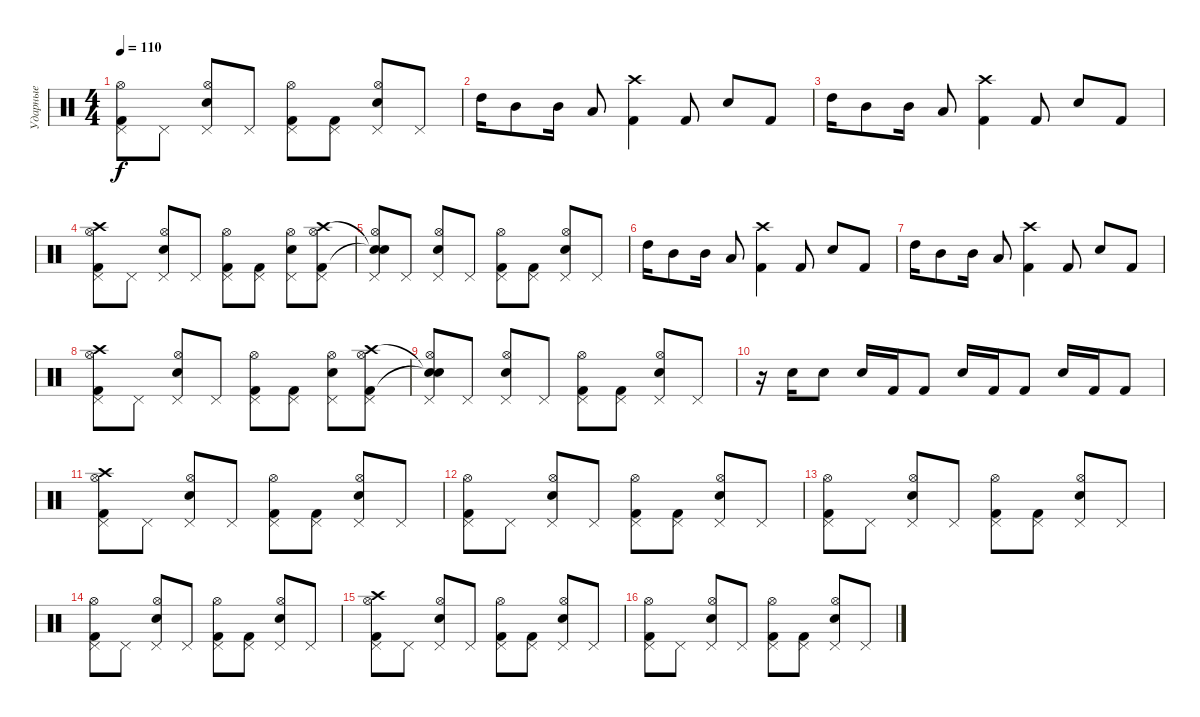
\track ("Ударные" "Ударные") {instrument percussion}
\staff {score}
\articulation defaults
\ts (4 4)
\tempo 110
\clef neutral
\ks c
("Kick (hit) 2" "Pedal Hi-Hat (hit)" "Hi-Hat (open)").8{dy f} "Pedal Hi-Hat (hit)".8 ("Snare (hit) 2" "Pedal Hi-Hat (hit)" "Hi-Hat (open)").8 "Pedal Hi-Hat (hit)".8 ("Kick (hit) 2" "Pedal Hi-Hat (hit)" "Hi-Hat (open)").8 ("Kick (hit) 2" "Pedal Hi-Hat (hit)").8 ("Snare (hit) 2" "Pedal Hi-Hat (hit)" "Hi-Hat (open)").8 "Pedal Hi-Hat (hit)".8 |
"High Tom (hit)".16 "Mid Tom (hit)".8 "Mid Tom (hit)".16 "Low Tom (hit)".8 ("Kick (hit) 2" "Crash high (hit)").4 "Kick (hit) 2".8 "Snare (hit) 2".8 "Kick (hit) 2".8 |
"High Tom (hit)".16 "Mid Tom (hit)".8 "Mid Tom (hit)".16 "Low Tom (hit)".8 ("Kick (hit) 2" "Crash high (hit)").4 "Kick (hit) 2".8 "Snare (hit) 2".8 "Kick (hit) 2".8 |
("Kick (hit) 2" "Crash high (hit)" "Pedal Hi-Hat (hit)" "Hi-Hat (open)").8 "Pedal Hi-Hat (hit)".8 ("Snare (hit) 2" "Pedal Hi-Hat (hit)" "Hi-Hat (open)").8 "Pedal Hi-Hat (hit)".8 ("Kick (hit) 2" "Pedal Hi-Hat (hit)" "Hi-Hat (open)").8 ("Kick (hit) 2" "Pedal Hi-Hat (hit)").8 ("Snare (hit) 2" "Pedal Hi-Hat (hit)" "Hi-Hat (open)").8 ("Kick (hit) 2" "Crash high (hit)" "Pedal Hi-Hat (hit)" "Hi-Hat (open)").8 |
("Snare (hit)"{t} "Snare (hit)"{t} "Pedal Hi-Hat (hit)" "Hi-Hat (open)").8 "Pedal Hi-Hat (hit)".8 ("Snare (hit) 2" "Pedal Hi-Hat (hit)" "Hi-Hat (open)").8 "Pedal Hi-Hat (hit)".8 ("Kick (hit) 2" "Pedal Hi-Hat (hit)" "Hi-Hat (open)").8 ("Kick (hit) 2" "Pedal Hi-Hat (hit)").8 ("Snare (hit) 2" "Pedal Hi-Hat (hit)" "Hi-Hat (open)").8 "Pedal Hi-Hat (hit)".8 |
"High Tom (hit)".16 "Mid Tom (hit)".8 "Mid Tom (hit)".16 "Low Tom (hit)".8 ("Kick (hit) 2" "Crash high (hit)").4 "Kick (hit) 2".8 "Snare (hit) 2".8 "Kick (hit) 2".8 |
"High Tom (hit)".16 "Mid Tom (hit)".8 "Mid Tom (hit)".16 "Low Tom (hit)".8 ("Kick (hit) 2" "Crash high (hit)").4 "Kick (hit) 2".8 "Snare (hit) 2".8 "Kick (hit) 2".8 |
("Kick (hit) 2" "Crash high (hit)" "Pedal Hi-Hat (hit)" "Hi-Hat (open)").8 "Pedal Hi-Hat (hit)".8 ("Snare (hit) 2" "Pedal Hi-Hat (hit)" "Hi-Hat (open)").8 "Pedal Hi-Hat (hit)".8 ("Kick (hit) 2" "Pedal Hi-Hat (hit)" "Hi-Hat (open)").8 ("Kick (hit) 2" "Pedal Hi-Hat (hit)").8 ("Snare (hit) 2" "Pedal Hi-Hat (hit)" "Hi-Hat (open)").8 ("Kick (hit) 2" "Crash high (hit)" "Pedal Hi-Hat (hit)" "Hi-Hat (open)").8 |
("Snare (hit)"{t} "Snare (hit)"{t} "Pedal Hi-Hat (hit)" "Hi-Hat (open)").8 "Pedal Hi-Hat (hit)".8 ("Snare (hit) 2" "Pedal Hi-Hat (hit)" "Hi-Hat (open)").8 "Pedal Hi-Hat (hit)".8 ("Kick (hit) 2" "Pedal Hi-Hat (hit)" "Hi-Hat (open)").8 ("Kick (hit) 2" "Pedal Hi-Hat (hit)").8 ("Snare (hit) 2" "Pedal Hi-Hat (hit)" "Hi-Hat (open)").8 "Pedal Hi-Hat (hit)".8 |
r.16 "Snare (hit) 2".16 "Snare (hit) 2".8 "Snare (hit) 2".16 "Kick (hit) 2".16 "Kick (hit) 2".8 "Snare (hit) 2".16 "Kick (hit) 2".16 "Kick (hit) 2".8 "Snare (hit) 2".16 "Kick (hit) 2".16 "Kick (hit) 2".8 |
("Kick (hit) 2" "Crash high (hit)" "Pedal Hi-Hat (hit)" "Hi-Hat (open)").8 "Pedal Hi-Hat (hit)".8 ("Snare (hit) 2" "Pedal Hi-Hat (hit)" "Hi-Hat (open)").8 "Pedal Hi-Hat (hit)".8 ("Kick (hit) 2" "Pedal Hi-Hat (hit)" "Hi-Hat (open)").8 ("Kick (hit) 2" "Pedal Hi-Hat (hit)").8 ("Snare (hit) 2" "Pedal Hi-Hat (hit)" "Hi-Hat (open)").8 "Pedal Hi-Hat (hit)".8 |
("Kick (hit) 2" "Pedal Hi-Hat (hit)" "Hi-Hat (open)").8 "Pedal Hi-Hat (hit)".8 ("Snare (hit) 2" "Pedal Hi-Hat (hit)" "Hi-Hat (open)").8 "Pedal Hi-Hat (hit)".8 ("Kick (hit) 2" "Pedal Hi-Hat (hit)" "Hi-Hat (open)").8 ("Kick (hit) 2" "Pedal Hi-Hat (hit)").8 ("Snare (hit) 2" "Pedal Hi-Hat (hit)" "Hi-Hat (open)").8 "Pedal Hi-Hat (hit)".8 |
("Kick (hit) 2" "Pedal Hi-Hat (hit)" "Hi-Hat (open)").8 "Pedal Hi-Hat (hit)".8 ("Snare (hit) 2" "Pedal Hi-Hat (hit)" "Hi-Hat (open)").8 "Pedal Hi-Hat (hit)".8 ("Kick (hit) 2" "Pedal Hi-Hat (hit)" "Hi-Hat (open)").8 ("Kick (hit) 2" "Pedal Hi-Hat (hit)").8 ("Snare (hit) 2" "Pedal Hi-Hat (hit)" "Hi-Hat (open)").8 "Pedal Hi-Hat (hit)".8 |
("Kick (hit) 2" "Pedal Hi-Hat (hit)" "Hi-Hat (open)").8 "Pedal Hi-Hat (hit)".8 ("Snare (hit) 2" "Pedal Hi-Hat (hit)" "Hi-Hat (open)").8 "Pedal Hi-Hat (hit)".8 ("Kick (hit) 2" "Pedal Hi-Hat (hit)" "Hi-Hat (open)").8 ("Kick (hit) 2" "Pedal Hi-Hat (hit)").8 ("Snare (hit) 2" "Pedal Hi-Hat (hit)" "Hi-Hat (open)").8 "Pedal Hi-Hat (hit)".8 |
("Kick (hit) 2" "Crash high (hit)" "Pedal Hi-Hat (hit)" "Hi-Hat (open)").8 "Pedal Hi-Hat (hit)".8 ("Snare (hit) 2" "Pedal Hi-Hat (hit)" "Hi-Hat (open)").8 "Pedal Hi-Hat (hit)".8 ("Kick (hit) 2" "Pedal Hi-Hat (hit)" "Hi-Hat (open)").8 ("Kick (hit) 2" "Pedal Hi-Hat (hit)").8 ("Snare (hit) 2" "Pedal Hi-Hat (hit)" "Hi-Hat (open)").8 "Pedal Hi-Hat (hit)".8 |
("Kick (hit) 2" "Pedal Hi-Hat (hit)" "Hi-Hat (open)").8 "Pedal Hi-Hat (hit)".8 ("Snare (hit) 2" "Pedal Hi-Hat (hit)" "Hi-Hat (open)").8 "Pedal Hi-Hat (hit)".8 ("Kick (hit) 2" "Pedal Hi-Hat (hit)" "Hi-Hat (open)").8 ("Kick (hit) 2" "Pedal Hi-Hat (hit)").8 ("Snare (hit) 2" "Pedal Hi-Hat (hit)" "Hi-Hat (open)").8 "Pedal Hi-Hat (hit)".8
